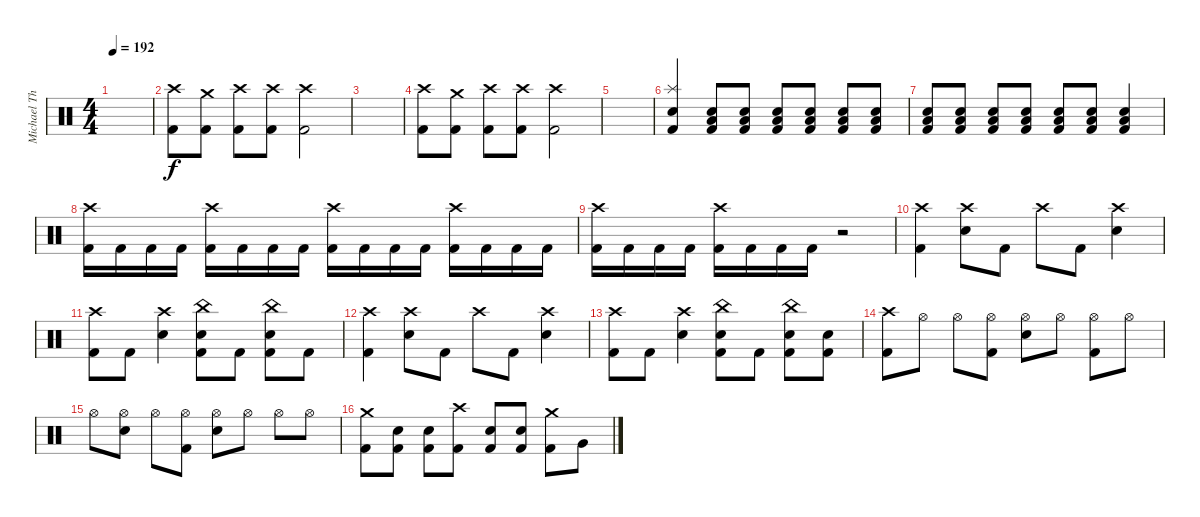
\track ("Michael Thomas (Drums)" "Michael Th") {instrument percussion}
\staff {score}
\articulation defaults
\ts (4 4)
\tempo 192
\clef neutral
\ks c
|
("Crash high (hit)" "Kick (hit) 2").8 ("Crash medium (hit)" "Kick (hit) 2").8 ("Crash high (hit)" "Kick (hit) 2").8 ("Crash high (hit)" "Kick (hit) 2").8 ("Crash high (hit)" "Kick (hit) 2").2 |
|
("Crash high (hit)" "Kick (hit) 2").8 ("Crash medium (hit)" "Kick (hit) 2").8 ("Crash high (hit)" "Kick (hit) 2").8 ("Crash high (hit)" "Kick (hit) 2").8 ("Crash high (hit)" "Kick (hit) 2").2 |
|
("Splash (hit)" "Kick (hit) 2" "Snare (hit) 2").4 ("Kick (hit) 2" "Low Floor Tom (hit)" "Snare (hit) 2").8 ("Kick (hit) 2" "Low Floor Tom (hit)" "Snare (hit) 2").8 ("Kick (hit) 2" "Low Floor Tom (hit)" "Snare (hit) 2").8 ("Kick (hit) 2" "Low Floor Tom (hit)" "Snare (hit) 2").8 ("Kick (hit) 2" "Low Floor Tom (hit)" "Snare (hit) 2").8 ("Kick (hit) 2" "Low Floor Tom (hit)" "Snare (hit) 2").8 |
("Kick (hit) 2" "Low Floor Tom (hit)" "Snare (hit) 2").8 ("Kick (hit) 2" "Low Floor Tom (hit)" "Snare (hit) 2").8 ("Kick (hit) 2" "Low Floor Tom (hit)" "Snare (hit) 2").8 ("Kick (hit) 2" "Low Floor Tom (hit)" "Snare (hit) 2").8 ("Kick (hit) 2" "Low Floor Tom (hit)" "Snare (hit) 2").8 ("Kick (hit) 2" "Low Floor Tom (hit)" "Snare (hit) 2").8 ("Kick (hit) 2" "Low Floor Tom (hit)" "Snare (hit) 2").4 |
("Crash high (hit)" "Kick (hit) 2").16 "Kick (hit) 2".16 "Kick (hit) 2".16 "Kick (hit) 2".16 ("Crash high (hit)" "Kick (hit) 2").16 "Kick (hit) 2".16 "Kick (hit) 2".16 "Kick (hit) 2".16 ("Crash high (hit)" "Kick (hit) 2").16 "Kick (hit) 2".16 "Kick (hit) 2".16 "Kick (hit) 2".16 ("Crash high (hit)" "Kick (hit) 2").16 "Kick (hit) 2".16 "Kick (hit) 2".16 "Kick (hit) 2".16 |
("Crash high (hit)" "Kick (hit) 2").16 "Kick (hit) 2".16 "Kick (hit) 2".16 "Kick (hit) 2".16 ("Crash high (hit)" "Kick (hit) 2").16 "Kick (hit) 2".16 "Kick (hit) 2".16 "Kick (hit) 2".16 r.2{volume 0} |
("Crash high (hit)" "Kick (hit) 2").4{volume 16} ("Crash high (hit)" "Snare (hit) 2").8 "Kick (hit) 2".8 "Crash high (hit)".8 "Kick (hit) 2".8 ("Crash high (hit)" "Snare (hit) 2").4 |
("Crash high (hit)" "Kick (hit) 2").8 "Kick (hit) 2".8 ("Crash high (hit)" "Snare (hit) 2").4 ("China (hit)" "Snare (hit) 2" "Kick (hit) 2").8 "Kick (hit) 2".8 ("China (hit)" "Snare (hit) 2" "Kick (hit) 2").8 "Kick (hit) 2".8 |
("Crash high (hit)" "Kick (hit) 2").4 ("Crash high (hit)" "Snare (hit) 2").8 "Kick (hit) 2".8 "Crash high (hit)".8 "Kick (hit) 2".8 ("Crash high (hit)" "Snare (hit) 2").4 |
("Crash high (hit)" "Kick (hit) 2").8 "Kick (hit) 2".8 ("Crash high (hit)" "Snare (hit) 2").4 ("China (hit)" "Snare (hit) 2" "Kick (hit) 2").8 "Kick (hit) 2".8 ("China (hit)" "Snare (hit) 2" "Kick (hit) 2").8 ("Snare (hit) 2" "Kick (hit) 2").8 |
("Crash high (hit)" "Kick (hit) 2").8 "Hi-Hat (open)".8 "Hi-Hat (open)".8 ("Hi-Hat (open)" "Kick (hit) 2").8 ("Hi-Hat (open)" "Snare (hit) 2").8 "Hi-Hat (open)".8 ("Hi-Hat (open)" "Kick (hit) 2").8 "Hi-Hat (open)".8 |
"Hi-Hat (open)".8 ("Hi-Hat (open)" "Snare (hit) 2").8 "Hi-Hat (open)".8 ("Hi-Hat (open)" "Kick (hit) 2").8 ("Hi-Hat (open)" "Snare (hit) 2").8 "Hi-Hat (open)".8 "Hi-Hat (open)".8 "Hi-Hat (open)".8 |
("Crash medium (hit)" "Kick (hit) 2").8 ("Snare (hit) 2" "Kick (hit) 2").8 ("Snare (hit) 2" "Kick (hit) 2").8 ("Crash high (hit)" "Kick (hit) 2").8 ("Snare (hit) 2" "Kick (hit) 2").8 ("Snare (hit) 2" "Kick (hit) 2").8 ("Crash medium (hit)" "Kick (hit) 2").8 "Very Low Tom (hit)".8
